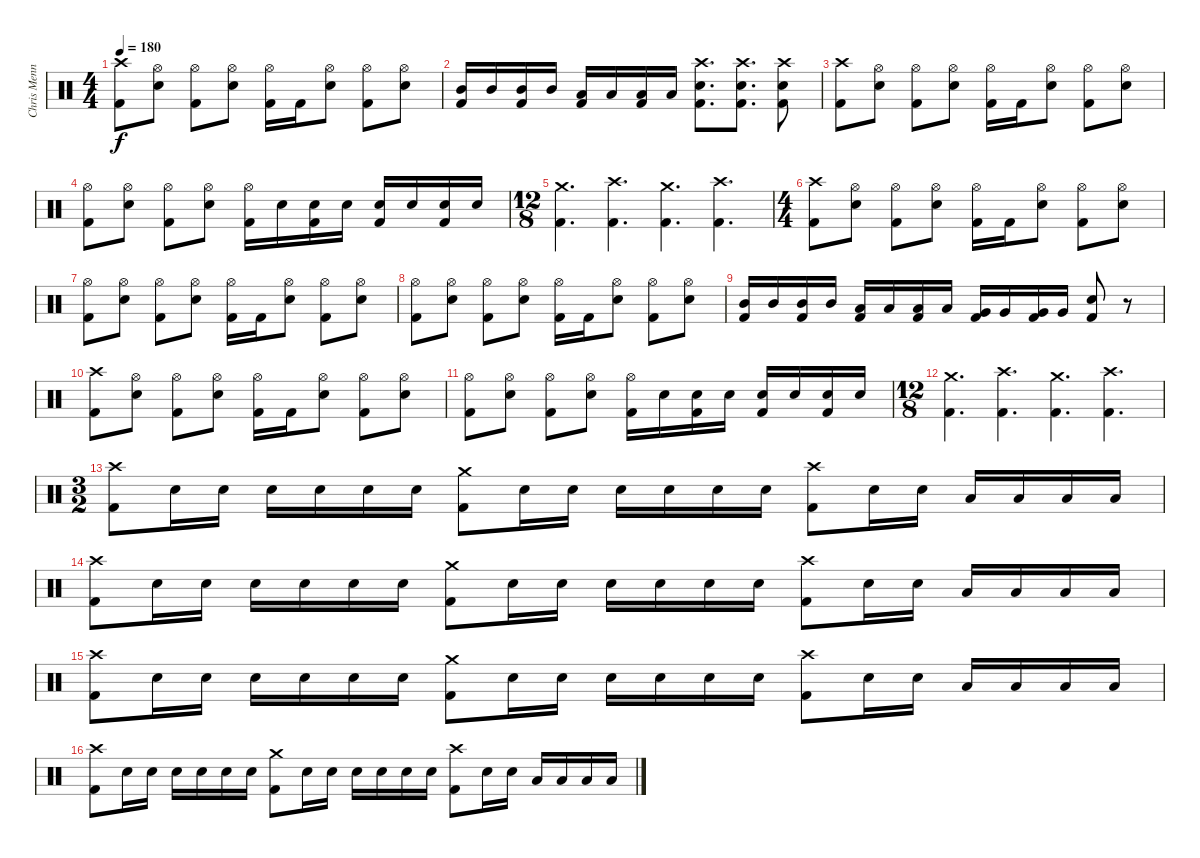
\track ("Chris Menning" "Chris Menn") {instrument percussion}
\staff {score}
\articulation defaults
\ts (4 4)
\tempo 180
\clef neutral
\ks c
("Crash high (hit)" "Kick (hit) 2").8{dy f} ("Hi-Hat (open)" "Electric Snare (hit)").8 ("Hi-Hat (open)" "Kick (hit) 2").8 ("Hi-Hat (open)" "Electric Snare (hit)").8 ("Hi-Hat (open)" "Kick (hit) 2").16 "Kick (hit) 2".16 ("Hi-Hat (open)" "Electric Snare (hit)").8 ("Hi-Hat (open)" "Kick (hit) 2").8 ("Hi-Hat (open)" "Electric Snare (hit)").8 |
("Mid Tom (hit)" "Kick (hit) 2").16 "Mid Tom (hit)".16 ("Mid Tom (hit)" "Kick (hit) 2").16 "Mid Tom (hit)".16 ("Low Tom (hit)" "Kick (hit) 2").16 "Low Tom (hit)".16 ("Low Tom (hit)" "Kick (hit) 2").16 "Low Tom (hit)".16 ("Crash high (hit)" "Electric Snare (hit)" "Kick (hit) 2").8{d} ("Crash high (hit)" "Electric Snare (hit)" "Kick (hit) 2").8{d} ("Crash high (hit)" "Electric Snare (hit)" "Kick (hit) 2").8 |
("Crash high (hit)" "Kick (hit) 2").8 ("Hi-Hat (open)" "Electric Snare (hit)").8 ("Hi-Hat (open)" "Kick (hit) 2").8 ("Hi-Hat (open)" "Electric Snare (hit)").8 ("Hi-Hat (open)" "Kick (hit) 2").16 "Kick (hit) 2".16 ("Hi-Hat (open)" "Electric Snare (hit)").8 ("Hi-Hat (open)" "Kick (hit) 2").8 ("Hi-Hat (open)" "Electric Snare (hit)").8 |
("Hi-Hat (open)" "Kick (hit) 2").8 ("Hi-Hat (open)" "Electric Snare (hit)").8 ("Hi-Hat (open)" "Kick (hit) 2").8 ("Hi-Hat (open)" "Electric Snare (hit)").8 ("Hi-Hat (open)" "Kick (hit) 2").16 "Electric Snare (hit)".16 ("Electric Snare (hit)" "Kick (hit) 2").16 "Electric Snare (hit)".16 ("Electric Snare (hit)" "Kick (hit) 2").16 "Electric Snare (hit)".16 ("Electric Snare (hit)" "Kick (hit) 2").16 "Electric Snare (hit)".16 |
\ts (12 8)
("Crash medium (hit)" "Kick (hit) 2").4{d} ("Crash high (hit)" "Kick (hit) 2").4{d} ("Crash medium (hit)" "Kick (hit) 2").4{d} ("Crash high (hit)" "Kick (hit) 2").4{d} |
\ts (4 4)
("Crash high (hit)" "Kick (hit) 2").8 ("Hi-Hat (open)" "Electric Snare (hit)").8 ("Hi-Hat (open)" "Kick (hit) 2").8 ("Hi-Hat (open)" "Electric Snare (hit)").8 ("Hi-Hat (open)" "Kick (hit) 2").16 "Kick (hit) 2".16 ("Hi-Hat (open)" "Electric Snare (hit)").8 ("Hi-Hat (open)" "Kick (hit) 2").8 ("Hi-Hat (open)" "Electric Snare (hit)").8 |
("Hi-Hat (open)" "Kick (hit) 2").8 ("Hi-Hat (open)" "Electric Snare (hit)").8 ("Hi-Hat (open)" "Kick (hit) 2").8 ("Hi-Hat (open)" "Electric Snare (hit)").8 ("Hi-Hat (open)" "Kick (hit) 2").16 "Kick (hit) 2".16 ("Hi-Hat (open)" "Electric Snare (hit)").8 ("Hi-Hat (open)" "Kick (hit) 2").8 ("Hi-Hat (open)" "Electric Snare (hit)").8 |
("Hi-Hat (open)" "Kick (hit) 2").8 ("Hi-Hat (open)" "Electric Snare (hit)").8 ("Hi-Hat (open)" "Kick (hit) 2").8 ("Hi-Hat (open)" "Electric Snare (hit)").8 ("Hi-Hat (open)" "Kick (hit) 2").16 "Kick (hit) 2".16 ("Hi-Hat (open)" "Electric Snare (hit)").8 ("Hi-Hat (open)" "Kick (hit) 2").8 ("Hi-Hat (open)" "Electric Snare (hit)").8 |
("Mid Tom (hit)" "Kick (hit) 2").16 "Mid Tom (hit)".16 ("Mid Tom (hit)" "Kick (hit) 2").16 "Mid Tom (hit)".16 ("Low Tom (hit)" "Kick (hit) 2").16 "Low Tom (hit)".16 ("Low Tom (hit)" "Kick (hit) 2").16 "Low Tom (hit)".16 ("Very Low Tom (hit)" "Kick (hit) 2").16 "Very Low Tom (hit)".16 ("Very Low Tom (hit)" "Kick (hit) 2").16 "Very Low Tom (hit)".16 ("Electric Snare (hit)" "Kick (hit) 2").8 r.8 |
("Crash high (hit)" "Kick (hit) 2").8 ("Hi-Hat (open)" "Electric Snare (hit)").8 ("Hi-Hat (open)" "Kick (hit) 2").8 ("Hi-Hat (open)" "Electric Snare (hit)").8 ("Hi-Hat (open)" "Kick (hit) 2").16 "Kick (hit) 2".16 ("Hi-Hat (open)" "Electric Snare (hit)").8 ("Hi-Hat (open)" "Kick (hit) 2").8 ("Hi-Hat (open)" "Electric Snare (hit)").8 |
("Hi-Hat (open)" "Kick (hit) 2").8 ("Hi-Hat (open)" "Electric Snare (hit)").8 ("Hi-Hat (open)" "Kick (hit) 2").8 ("Hi-Hat (open)" "Electric Snare (hit)").8 ("Hi-Hat (open)" "Kick (hit) 2").16 "Electric Snare (hit)".16 ("Electric Snare (hit)" "Kick (hit) 2").16 "Electric Snare (hit)".16 ("Electric Snare (hit)" "Kick (hit) 2").16 "Electric Snare (hit)".16 ("Electric Snare (hit)" "Kick (hit) 2").16 "Electric Snare (hit)".16 |
\ts (12 8)
("Crash medium (hit)" "Kick (hit) 2").4{d} ("Crash high (hit)" "Kick (hit) 2").4{d} ("Crash medium (hit)" "Kick (hit) 2").4{d} ("Crash high (hit)" "Kick (hit) 2").4{d} |
\ts (3 2)
("Crash high (hit)" "Kick (hit) 2").8 "Electric Snare (hit)".16 "Electric Snare (hit)".16 "Electric Snare (hit)".16 "Electric Snare (hit)".16 "Electric Snare (hit)".16 "Electric Snare (hit)".16 ("Crash medium (hit)" "Kick (hit) 2").8 "Electric Snare (hit)".16 "Electric Snare (hit)".16 "Electric Snare (hit)".16 "Electric Snare (hit)".16 "Electric Snare (hit)".16 "Electric Snare (hit)".16 ("Crash high (hit)" "Kick (hit) 2").8 "Electric Snare (hit)".16 "Electric Snare (hit)".16 "Low Tom (hit)".16 "Low Tom (hit)".16 "Low Tom (hit)".16 "Low Tom (hit)".16 |
("Crash high (hit)" "Kick (hit) 2").8 "Electric Snare (hit)".16 "Electric Snare (hit)".16 "Electric Snare (hit)".16 "Electric Snare (hit)".16 "Electric Snare (hit)".16 "Electric Snare (hit)".16 ("Crash medium (hit)" "Kick (hit) 2").8 "Electric Snare (hit)".16 "Electric Snare (hit)".16 "Electric Snare (hit)".16 "Electric Snare (hit)".16 "Electric Snare (hit)".16 "Electric Snare (hit)".16 ("Crash high (hit)" "Kick (hit) 2").8 "Electric Snare (hit)".16 "Electric Snare (hit)".16 "Low Tom (hit)".16 "Low Tom (hit)".16 "Low Tom (hit)".16 "Low Tom (hit)".16 |
("Crash high (hit)" "Kick (hit) 2").8 "Electric Snare (hit)".16 "Electric Snare (hit)".16 "Electric Snare (hit)".16 "Electric Snare (hit)".16 "Electric Snare (hit)".16 "Electric Snare (hit)".16 ("Crash medium (hit)" "Kick (hit) 2").8 "Electric Snare (hit)".16 "Electric Snare (hit)".16 "Electric Snare (hit)".16 "Electric Snare (hit)".16 "Electric Snare (hit)".16 "Electric Snare (hit)".16 ("Crash high (hit)" "Kick (hit) 2").8 "Electric Snare (hit)".16 "Electric Snare (hit)".16 "Low Tom (hit)".16 "Low Tom (hit)".16 "Low Tom (hit)".16 "Low Tom (hit)".16 |
("Crash high (hit)" "Kick (hit) 2").8 "Electric Snare (hit)".16 "Electric Snare (hit)".16 "Electric Snare (hit)".16 "Electric Snare (hit)".16 "Electric Snare (hit)".16 "Electric Snare (hit)".16 ("Crash medium (hit)" "Kick (hit) 2").8 "Electric Snare (hit)".16 "Electric Snare (hit)".16 "Electric Snare (hit)".16 "Electric Snare (hit)".16 "Electric Snare (hit)".16 "Electric Snare (hit)".16 ("Crash high (hit)" "Kick (hit) 2").8 "Electric Snare (hit)".16 "Electric Snare (hit)".16 "Low Tom (hit)".16 "Low Tom (hit)".16 "Low Tom (hit)".16 "Low Tom (hit)".16
